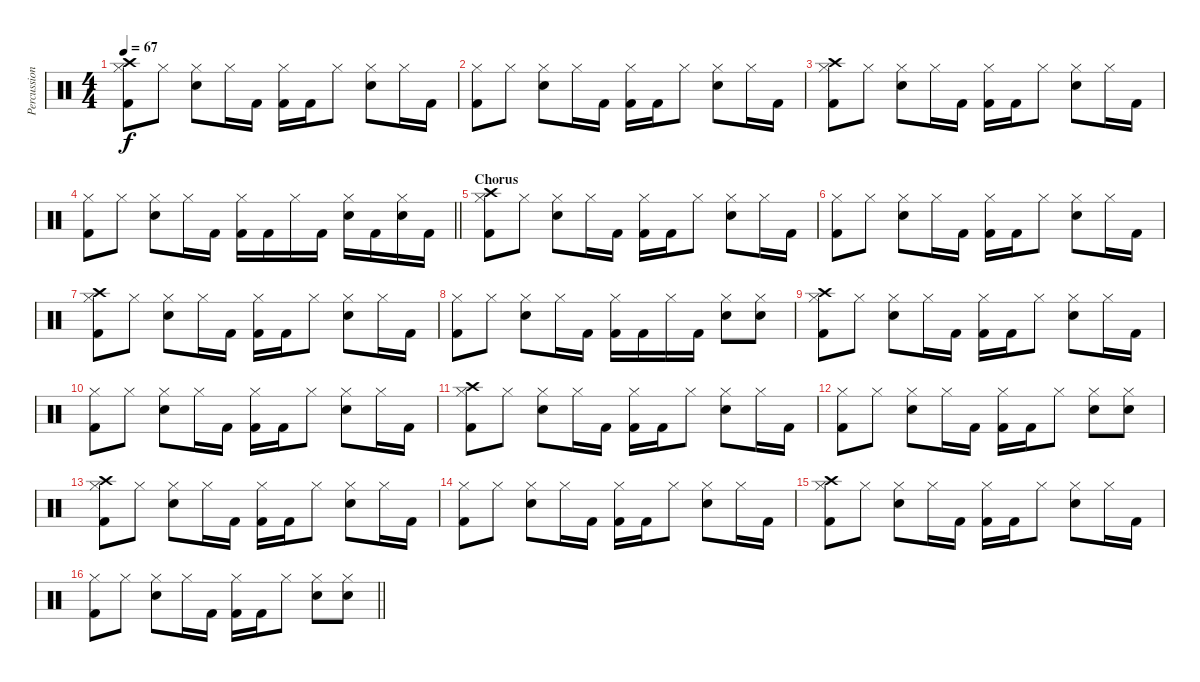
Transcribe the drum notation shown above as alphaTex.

\track ("Percussion" "Percussion") {instrument percussion}
\staff {score}
\articulation defaults
\ts (4 4)
\tempo 67
\clef neutral
\ks c
("Crash high (hit)" "Hi-Hat (closed)" "Kick (hit) 2").8{dy f} "Hi-Hat (closed)".8 ("Hi-Hat (closed)" "Snare (hit) 2").8 "Hi-Hat (closed)".16 "Kick (hit) 2".16 ("Hi-Hat (closed)" "Kick (hit) 2").16 "Kick (hit) 2".16 "Hi-Hat (closed)".8 ("Hi-Hat (closed)" "Snare (hit) 2").8 "Hi-Hat (closed)".16 "Kick (hit) 2".16 |
("Hi-Hat (closed)" "Kick (hit) 2").8 "Hi-Hat (closed)".8 ("Hi-Hat (closed)" "Snare (hit) 2").8 "Hi-Hat (closed)".16 "Kick (hit) 2".16 ("Hi-Hat (closed)" "Kick (hit) 2").16 "Kick (hit) 2".16 "Hi-Hat (closed)".8 ("Hi-Hat (closed)" "Snare (hit) 2").8 "Hi-Hat (closed)".16 "Kick (hit) 2".16 |
("Crash high (hit)" "Hi-Hat (closed)" "Kick (hit) 2").8 "Hi-Hat (closed)".8 ("Hi-Hat (closed)" "Snare (hit) 2").8 "Hi-Hat (closed)".16 "Kick (hit) 2".16 ("Hi-Hat (closed)" "Kick (hit) 2").16 "Kick (hit) 2".16 "Hi-Hat (closed)".8 ("Hi-Hat (closed)" "Snare (hit) 2").8 "Hi-Hat (closed)".16 "Kick (hit) 2".16 |
\barLineRight lightlight
("Hi-Hat (closed)" "Kick (hit) 2").8 "Hi-Hat (closed)".8 ("Hi-Hat (closed)" "Snare (hit) 2").8 "Hi-Hat (closed)".16 "Kick (hit) 2".16 ("Hi-Hat (closed)" "Kick (hit) 2").16 "Kick (hit) 2".16 "Hi-Hat (closed)".16 "Kick (hit) 2".16 ("Hi-Hat (closed)" "Snare (hit) 2").16 "Kick (hit) 2".16 ("Hi-Hat (closed)" "Snare (hit) 2").16 "Kick (hit) 2".16 |
\section ("" "Chorus")
("Crash high (hit)" "Hi-Hat (closed)" "Kick (hit) 2").8 "Hi-Hat (closed)".8 ("Hi-Hat (closed)" "Snare (hit) 2").8 "Hi-Hat (closed)".16 "Kick (hit) 2".16 ("Hi-Hat (closed)" "Kick (hit) 2").16 "Kick (hit) 2".16 "Hi-Hat (closed)".8 ("Hi-Hat (closed)" "Snare (hit) 2").8 "Hi-Hat (closed)".16 "Kick (hit) 2".16 |
("Hi-Hat (closed)" "Kick (hit) 2").8 "Hi-Hat (closed)".8 ("Hi-Hat (closed)" "Snare (hit) 2").8 "Hi-Hat (closed)".16 "Kick (hit) 2".16 ("Hi-Hat (closed)" "Kick (hit) 2").16 "Kick (hit) 2".16 "Hi-Hat (closed)".8 ("Hi-Hat (closed)" "Snare (hit) 2").8 "Hi-Hat (closed)".16 "Kick (hit) 2".16 |
("Crash high (hit)" "Hi-Hat (closed)" "Kick (hit) 2").8 "Hi-Hat (closed)".8 ("Hi-Hat (closed)" "Snare (hit) 2").8 "Hi-Hat (closed)".16 "Kick (hit) 2".16 ("Hi-Hat (closed)" "Kick (hit) 2").16 "Kick (hit) 2".16 "Hi-Hat (closed)".8 ("Hi-Hat (closed)" "Snare (hit) 2").8 "Hi-Hat (closed)".16 "Kick (hit) 2".16 |
("Hi-Hat (closed)" "Kick (hit) 2").8 "Hi-Hat (closed)".8 ("Hi-Hat (closed)" "Snare (hit) 2").8 "Hi-Hat (closed)".16 "Kick (hit) 2".16 ("Hi-Hat (closed)" "Kick (hit) 2").16 "Kick (hit) 2".16 "Hi-Hat (closed)".16 "Kick (hit) 2".16 ("Hi-Hat (closed)" "Snare (hit) 2").8 ("Hi-Hat (closed)" "Snare (hit) 2").8 |
("Crash high (hit)" "Hi-Hat (closed)" "Kick (hit) 2").8 "Hi-Hat (closed)".8 ("Hi-Hat (closed)" "Snare (hit) 2").8 "Hi-Hat (closed)".16 "Kick (hit) 2".16 ("Hi-Hat (closed)" "Kick (hit) 2").16 "Kick (hit) 2".16 "Hi-Hat (closed)".8 ("Hi-Hat (closed)" "Snare (hit) 2").8 "Hi-Hat (closed)".16 "Kick (hit) 2".16 |
("Hi-Hat (closed)" "Kick (hit) 2").8 "Hi-Hat (closed)".8 ("Hi-Hat (closed)" "Snare (hit) 2").8 "Hi-Hat (closed)".16 "Kick (hit) 2".16 ("Hi-Hat (closed)" "Kick (hit) 2").16 "Kick (hit) 2".16 "Hi-Hat (closed)".8 ("Hi-Hat (closed)" "Snare (hit) 2").8 "Hi-Hat (closed)".16 "Kick (hit) 2".16 |
("Crash high (hit)" "Hi-Hat (closed)" "Kick (hit) 2").8 "Hi-Hat (closed)".8 ("Hi-Hat (closed)" "Snare (hit) 2").8 "Hi-Hat (closed)".16 "Kick (hit) 2".16 ("Hi-Hat (closed)" "Kick (hit) 2").16 "Kick (hit) 2".16 "Hi-Hat (closed)".8 ("Hi-Hat (closed)" "Snare (hit) 2").8 "Hi-Hat (closed)".16 "Kick (hit) 2".16 |
("Hi-Hat (closed)" "Kick (hit) 2").8 "Hi-Hat (closed)".8 ("Hi-Hat (closed)" "Snare (hit) 2").8 "Hi-Hat (closed)".16 "Kick (hit) 2".16 ("Hi-Hat (closed)" "Kick (hit) 2").16 "Kick (hit) 2".16 "Hi-Hat (closed)".8 ("Hi-Hat (closed)" "Snare (hit) 2").8 ("Hi-Hat (closed)" "Snare (hit) 2").8 |
("Crash high (hit)" "Hi-Hat (closed)" "Kick (hit) 2").8 "Hi-Hat (closed)".8 ("Hi-Hat (closed)" "Snare (hit) 2").8 "Hi-Hat (closed)".16 "Kick (hit) 2".16 ("Hi-Hat (closed)" "Kick (hit) 2").16 "Kick (hit) 2".16 "Hi-Hat (closed)".8 ("Hi-Hat (closed)" "Snare (hit) 2").8 "Hi-Hat (closed)".16 "Kick (hit) 2".16 |
("Hi-Hat (closed)" "Kick (hit) 2").8 "Hi-Hat (closed)".8 ("Hi-Hat (closed)" "Snare (hit) 2").8 "Hi-Hat (closed)".16 "Kick (hit) 2".16 ("Hi-Hat (closed)" "Kick (hit) 2").16 "Kick (hit) 2".16 "Hi-Hat (closed)".8 ("Hi-Hat (closed)" "Snare (hit) 2").8 "Hi-Hat (closed)".16 "Kick (hit) 2".16 |
("Crash high (hit)" "Hi-Hat (closed)" "Kick (hit) 2").8 "Hi-Hat (closed)".8 ("Hi-Hat (closed)" "Snare (hit) 2").8 "Hi-Hat (closed)".16 "Kick (hit) 2".16 ("Hi-Hat (closed)" "Kick (hit) 2").16 "Kick (hit) 2".16 "Hi-Hat (closed)".8 ("Hi-Hat (closed)" "Snare (hit) 2").8 "Hi-Hat (closed)".16 "Kick (hit) 2".16 |
\barLineRight lightlight
("Hi-Hat (closed)" "Kick (hit) 2").8 "Hi-Hat (closed)".8 ("Hi-Hat (closed)" "Snare (hit) 2").8 "Hi-Hat (closed)".16 "Kick (hit) 2".16 ("Hi-Hat (closed)" "Kick (hit) 2").16 "Kick (hit) 2".16 "Hi-Hat (closed)".8 ("Hi-Hat (closed)" "Snare (hit) 2").8 ("Hi-Hat (closed)" "Snare (hit) 2").8
